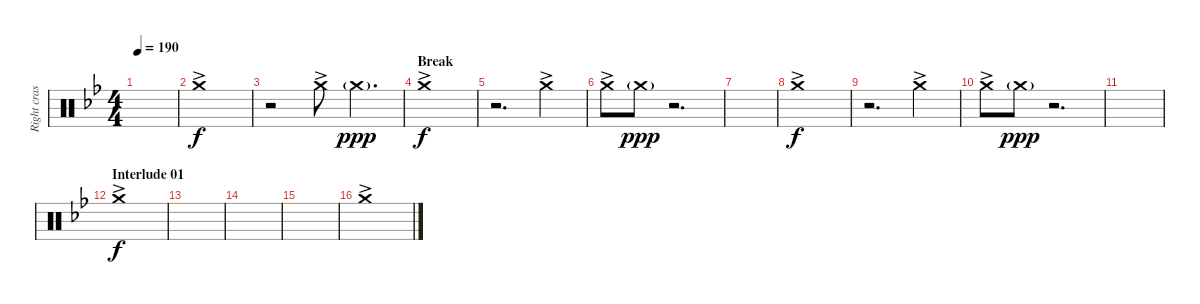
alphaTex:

\track ("Right crash" "Right cras") {instrument percussion}
\staff {score}
\articulation defaults
\ts (4 4)
\tempo 190
\clef neutral
\ks bb
|
"Crash medium (hit)"{ac}.1 |
r.2 "Crash medium (hit)"{ac}.8 "Crash medium (hit)"{g}.4{d dy ppp} |
\section ("" "Break")
"Crash medium (hit)"{ac}.1{dy f} |
r.2{d} "Crash medium (hit)"{ac}.4 |
"Crash medium (hit)"{ac}.8 "Crash medium (hit)"{g}.8{dy ppp} r.2{d} |
|
"Crash medium (hit)"{ac}.1{dy f} |
r.2{d} "Crash medium (hit)"{ac}.4 |
"Crash medium (hit)"{ac}.8 "Crash medium (hit)"{g}.8{dy ppp} r.2{d} |
|
\section ("" "Interlude 01")
"Crash medium (hit)"{ac}.1{dy f} |
|
|
|
"Crash medium (hit)"{ac}.1
